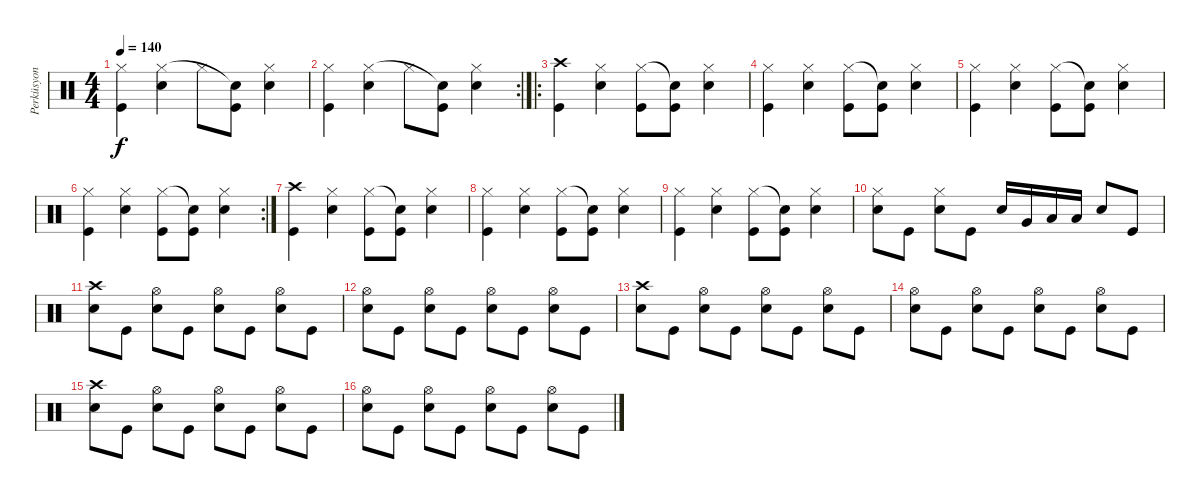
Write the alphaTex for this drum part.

\track ("Perküsyon" "Perküsyon") {instrument percussion}
\staff {score}
\articulation defaults
\ts (4 4)
\tempo 140
\clef neutral
\ks c
("Kick (hit)" "Hi-Hat (closed)").4{dy f} ("Electric Snare (hit)" "Hi-Hat (closed)").4 "Hi-Hat (closed)".8 ("Kick (hit)" "Snare (hit)"{t}).8 ("Electric Snare (hit)" "Hi-Hat (closed)").4 |
\rc 2
("Kick (hit)" "Hi-Hat (closed)").4 ("Electric Snare (hit)" "Hi-Hat (closed)").4 "Hi-Hat (closed)".8 ("Kick (hit)" "Snare (hit)"{t}).8 ("Electric Snare (hit)" "Hi-Hat (closed)").4 |
\ro
("Kick (hit)" "Crash high (hit)").4 ("Electric Snare (hit)" "Hi-Hat (closed)").4 ("Kick (hit)" "Hi-Hat (closed)").8 ("Kick (hit)" "Snare (hit)"{t}).8 ("Electric Snare (hit)" "Hi-Hat (closed)").4 |
("Kick (hit)" "Hi-Hat (closed)").4 ("Electric Snare (hit)" "Hi-Hat (closed)").4 ("Kick (hit)" "Hi-Hat (closed)").8 ("Kick (hit)" "Snare (hit)"{t}).8 ("Electric Snare (hit)" "Hi-Hat (closed)").4 |
("Kick (hit)" "Hi-Hat (closed)").4 ("Electric Snare (hit)" "Hi-Hat (closed)").4 ("Kick (hit)" "Hi-Hat (closed)").8 ("Kick (hit)" "Snare (hit)"{t}).8 ("Electric Snare (hit)" "Hi-Hat (closed)").4 |
\rc 2
("Kick (hit)" "Hi-Hat (closed)").4 ("Electric Snare (hit)" "Hi-Hat (closed)").4 ("Kick (hit)" "Hi-Hat (closed)").8 ("Kick (hit)" "Snare (hit)"{t}).8 ("Electric Snare (hit)" "Hi-Hat (closed)").4 |
("Kick (hit)" "Crash high (hit)").4 ("Electric Snare (hit)" "Hi-Hat (closed)").4 ("Kick (hit)" "Hi-Hat (closed)").8 ("Kick (hit)" "Snare (hit)"{t}).8 ("Electric Snare (hit)" "Hi-Hat (closed)").4 |
("Kick (hit)" "Hi-Hat (closed)").4 ("Electric Snare (hit)" "Hi-Hat (closed)").4 ("Kick (hit)" "Hi-Hat (closed)").8 ("Kick (hit)" "Snare (hit)"{t}).8 ("Electric Snare (hit)" "Hi-Hat (closed)").4 |
("Kick (hit)" "Hi-Hat (closed)").4 ("Electric Snare (hit)" "Hi-Hat (closed)").4 ("Kick (hit)" "Hi-Hat (closed)").8 ("Kick (hit)" "Snare (hit)"{t}).8 ("Electric Snare (hit)" "Hi-Hat (closed)").4 |
("Electric Snare (hit)" "Hi-Hat (closed)").8 "Kick (hit)".8 ("Electric Snare (hit)" "Hi-Hat (closed)").8 "Kick (hit)".8 "Electric Snare (hit)".16 "Very Low Tom (hit)".16 "Low Floor Tom (hit)".16 "Low Floor Tom (hit)".16 "Electric Snare (hit)".8 "Kick (hit)".8 |
("Electric Snare (hit)" "Crash high (hit)").8 "Kick (hit)".8 ("Electric Snare (hit)" "Hi-Hat (open)").8 "Kick (hit)".8 ("Electric Snare (hit)" "Hi-Hat (open)").8 "Kick (hit)".8 ("Electric Snare (hit)" "Hi-Hat (open)").8 "Kick (hit)".8 |
("Electric Snare (hit)" "Hi-Hat (open)").8 "Kick (hit)".8 ("Electric Snare (hit)" "Hi-Hat (open)").8 "Kick (hit)".8 ("Electric Snare (hit)" "Hi-Hat (open)").8 "Kick (hit)".8 ("Electric Snare (hit)" "Hi-Hat (open)").8 "Kick (hit)".8 |
("Electric Snare (hit)" "Crash high (hit)").8 "Kick (hit)".8 ("Electric Snare (hit)" "Hi-Hat (open)").8 "Kick (hit)".8 ("Electric Snare (hit)" "Hi-Hat (open)").8 "Kick (hit)".8 ("Electric Snare (hit)" "Hi-Hat (open)").8 "Kick (hit)".8 |
("Electric Snare (hit)" "Hi-Hat (open)").8 "Kick (hit)".8 ("Electric Snare (hit)" "Hi-Hat (open)").8 "Kick (hit)".8 ("Electric Snare (hit)" "Hi-Hat (open)").8 "Kick (hit)".8 ("Electric Snare (hit)" "Hi-Hat (open)").8 "Kick (hit)".8 |
("Electric Snare (hit)" "Crash high (hit)").8 "Kick (hit)".8 ("Electric Snare (hit)" "Hi-Hat (open)").8 "Kick (hit)".8 ("Electric Snare (hit)" "Hi-Hat (open)").8 "Kick (hit)".8 ("Electric Snare (hit)" "Hi-Hat (open)").8 "Kick (hit)".8 |
("Electric Snare (hit)" "Hi-Hat (open)").8 "Kick (hit)".8 ("Electric Snare (hit)" "Hi-Hat (open)").8 "Kick (hit)".8 ("Electric Snare (hit)" "Hi-Hat (open)").8 "Kick (hit)".8 ("Electric Snare (hit)" "Hi-Hat (open)").8 "Kick (hit)".8
